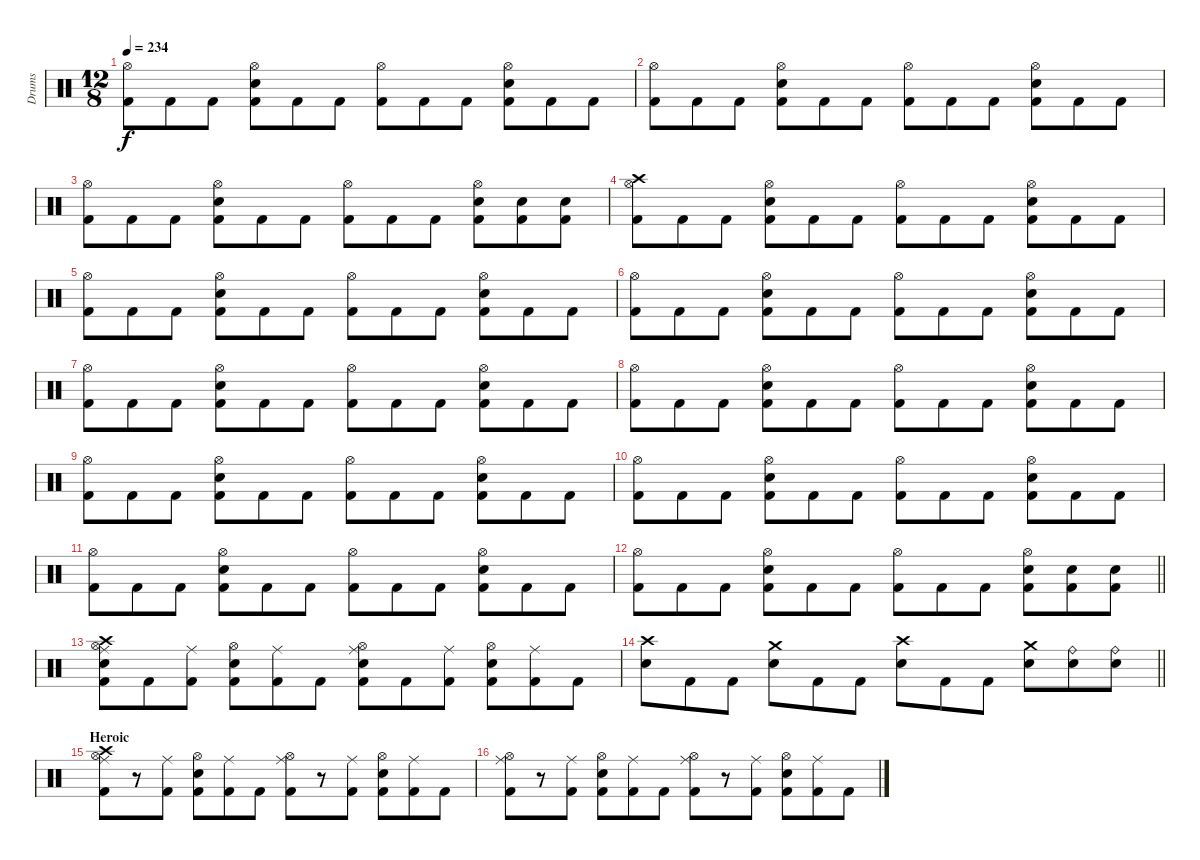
\track ("Drums" "Drums") {instrument percussion}
\staff {score}
\articulation defaults
\ts (12 8)
\tempo 234
\clef neutral
\ks c
("Hi-Hat (open)" "Kick (hit) 2").8{dy f} "Kick (hit) 2".8 "Kick (hit) 2".8 ("Hi-Hat (open)" "Snare (hit) 2" "Kick (hit) 2").8 "Kick (hit) 2".8 "Kick (hit) 2".8 ("Hi-Hat (open)" "Kick (hit) 2").8 "Kick (hit) 2".8 "Kick (hit) 2".8 ("Hi-Hat (open)" "Snare (hit) 2" "Kick (hit) 2").8 "Kick (hit) 2".8 "Kick (hit) 2".8 |
("Hi-Hat (open)" "Kick (hit) 2").8 "Kick (hit) 2".8 "Kick (hit) 2".8 ("Hi-Hat (open)" "Snare (hit) 2" "Kick (hit) 2").8 "Kick (hit) 2".8 "Kick (hit) 2".8 ("Hi-Hat (open)" "Kick (hit) 2").8 "Kick (hit) 2".8 "Kick (hit) 2".8 ("Hi-Hat (open)" "Snare (hit) 2" "Kick (hit) 2").8 "Kick (hit) 2".8 "Kick (hit) 2".8 |
("Hi-Hat (open)" "Kick (hit) 2").8 "Kick (hit) 2".8 "Kick (hit) 2".8 ("Hi-Hat (open)" "Snare (hit) 2" "Kick (hit) 2").8 "Kick (hit) 2".8 "Kick (hit) 2".8 ("Hi-Hat (open)" "Kick (hit) 2").8 "Kick (hit) 2".8 "Kick (hit) 2".8 ("Hi-Hat (open)" "Snare (hit) 2" "Kick (hit) 2").8 ("Snare (hit) 2" "Kick (hit) 2").8 ("Snare (hit) 2" "Kick (hit) 2").8 |
("Crash high (hit)" "Hi-Hat (open)" "Kick (hit) 2").8 "Kick (hit) 2".8 "Kick (hit) 2".8 ("Hi-Hat (open)" "Snare (hit) 2" "Kick (hit) 2").8 "Kick (hit) 2".8 "Kick (hit) 2".8 ("Hi-Hat (open)" "Kick (hit) 2").8 "Kick (hit) 2".8 "Kick (hit) 2".8 ("Hi-Hat (open)" "Snare (hit) 2" "Kick (hit) 2").8 "Kick (hit) 2".8 "Kick (hit) 2".8 |
("Hi-Hat (open)" "Kick (hit) 2").8 "Kick (hit) 2".8 "Kick (hit) 2".8 ("Hi-Hat (open)" "Snare (hit) 2" "Kick (hit) 2").8 "Kick (hit) 2".8 "Kick (hit) 2".8 ("Hi-Hat (open)" "Kick (hit) 2").8 "Kick (hit) 2".8 "Kick (hit) 2".8 ("Hi-Hat (open)" "Snare (hit) 2" "Kick (hit) 2").8 "Kick (hit) 2".8 "Kick (hit) 2".8 |
("Hi-Hat (open)" "Kick (hit) 2").8 "Kick (hit) 2".8 "Kick (hit) 2".8 ("Hi-Hat (open)" "Snare (hit) 2" "Kick (hit) 2").8 "Kick (hit) 2".8 "Kick (hit) 2".8 ("Hi-Hat (open)" "Kick (hit) 2").8 "Kick (hit) 2".8 "Kick (hit) 2".8 ("Hi-Hat (open)" "Snare (hit) 2" "Kick (hit) 2").8 "Kick (hit) 2".8 "Kick (hit) 2".8 |
("Hi-Hat (open)" "Kick (hit) 2").8 "Kick (hit) 2".8 "Kick (hit) 2".8 ("Hi-Hat (open)" "Snare (hit) 2" "Kick (hit) 2").8 "Kick (hit) 2".8 "Kick (hit) 2".8 ("Hi-Hat (open)" "Kick (hit) 2").8 "Kick (hit) 2".8 "Kick (hit) 2".8 ("Hi-Hat (open)" "Snare (hit) 2" "Kick (hit) 2").8 "Kick (hit) 2".8 "Kick (hit) 2".8 |
("Hi-Hat (open)" "Kick (hit) 2").8 "Kick (hit) 2".8 "Kick (hit) 2".8 ("Hi-Hat (open)" "Snare (hit) 2" "Kick (hit) 2").8 "Kick (hit) 2".8 "Kick (hit) 2".8 ("Hi-Hat (open)" "Kick (hit) 2").8 "Kick (hit) 2".8 "Kick (hit) 2".8 ("Hi-Hat (open)" "Snare (hit) 2" "Kick (hit) 2").8 "Kick (hit) 2".8 "Kick (hit) 2".8 |
("Hi-Hat (open)" "Kick (hit) 2").8 "Kick (hit) 2".8 "Kick (hit) 2".8 ("Hi-Hat (open)" "Snare (hit) 2" "Kick (hit) 2").8 "Kick (hit) 2".8 "Kick (hit) 2".8 ("Hi-Hat (open)" "Kick (hit) 2").8 "Kick (hit) 2".8 "Kick (hit) 2".8 ("Hi-Hat (open)" "Snare (hit) 2" "Kick (hit) 2").8 "Kick (hit) 2".8 "Kick (hit) 2".8 |
("Hi-Hat (open)" "Kick (hit) 2").8 "Kick (hit) 2".8 "Kick (hit) 2".8 ("Hi-Hat (open)" "Snare (hit) 2" "Kick (hit) 2").8 "Kick (hit) 2".8 "Kick (hit) 2".8 ("Hi-Hat (open)" "Kick (hit) 2").8 "Kick (hit) 2".8 "Kick (hit) 2".8 ("Hi-Hat (open)" "Snare (hit) 2" "Kick (hit) 2").8 "Kick (hit) 2".8 "Kick (hit) 2".8 |
("Hi-Hat (open)" "Kick (hit) 2").8 "Kick (hit) 2".8 "Kick (hit) 2".8 ("Hi-Hat (open)" "Snare (hit) 2" "Kick (hit) 2").8 "Kick (hit) 2".8 "Kick (hit) 2".8 ("Hi-Hat (open)" "Kick (hit) 2").8 "Kick (hit) 2".8 "Kick (hit) 2".8 ("Hi-Hat (open)" "Snare (hit) 2" "Kick (hit) 2").8 "Kick (hit) 2".8 "Kick (hit) 2".8 |
\barLineRight lightlight
("Hi-Hat (open)" "Kick (hit) 2").8 "Kick (hit) 2".8 "Kick (hit) 2".8 ("Hi-Hat (open)" "Snare (hit) 2" "Kick (hit) 2").8 "Kick (hit) 2".8 "Kick (hit) 2".8 ("Hi-Hat (open)" "Kick (hit) 2").8 "Kick (hit) 2".8 "Kick (hit) 2".8 ("Hi-Hat (open)" "Snare (hit) 2" "Kick (hit) 2").8 ("Snare (hit) 2" "Kick (hit) 2").8 ("Snare (hit) 2" "Kick (hit) 2").8 |
("Crash high (hit)" "Ride (middle)" "Hi-Hat (open)" "Snare (hit) 2" "Kick (hit) 2").8 "Kick (hit) 2".8 ("Ride (middle)" "Kick (hit) 2").8 ("Hi-Hat (open)" "Snare (hit) 2" "Kick (hit) 2").8 ("Ride (middle)" "Kick (hit) 2").8 "Kick (hit) 2".8 ("Ride (middle)" "Hi-Hat (open)" "Snare (hit) 2" "Kick (hit) 2").8 "Kick (hit) 2".8 ("Ride (middle)" "Kick (hit) 2").8 ("Hi-Hat (open)" "Snare (hit) 2" "Kick (hit) 2").8 ("Ride (middle)" "Kick (hit) 2").8 "Kick (hit) 2".8 |
\barLineRight lightlight
("Crash high (hit)" "Snare (hit) 2").8 "Kick (hit) 2".8 "Kick (hit) 2".8 ("Crash medium (hit)" "Snare (hit) 2").8 "Kick (hit) 2".8 "Kick (hit) 2".8 ("Crash high (hit)" "Snare (hit) 2").8 "Kick (hit) 2".8 "Kick (hit) 2".8 ("Crash medium (hit)" "Snare (hit) 2").8 ("Ride (bell)" "Snare (hit) 2").8 ("Ride (bell)" "Snare (hit) 2").8 |
\section ("" "Heroic")
("Crash high (hit)" "Hi-Hat (open)" "Ride (middle)" "Kick (hit) 2").8 r.8 ("Ride (middle)" "Kick (hit) 2").8 ("Hi-Hat (open)" "Snare (hit) 2" "Kick (hit) 2").8 ("Ride (middle)" "Kick (hit) 2").8 "Kick (hit) 2".8 ("Hi-Hat (open)" "Ride (middle)" "Kick (hit) 2").8 r.8 ("Ride (middle)" "Kick (hit) 2").8 ("Hi-Hat (open)" "Snare (hit) 2" "Kick (hit) 2").8 ("Ride (middle)" "Kick (hit) 2").8 "Kick (hit) 2".8 |
("Hi-Hat (open)" "Ride (middle)" "Kick (hit) 2").8 r.8 ("Ride (middle)" "Kick (hit) 2").8 ("Hi-Hat (open)" "Snare (hit) 2" "Kick (hit) 2").8 ("Ride (middle)" "Kick (hit) 2").8 "Kick (hit) 2".8 ("Hi-Hat (open)" "Ride (middle)" "Kick (hit) 2").8 r.8 ("Ride (middle)" "Kick (hit) 2").8 ("Hi-Hat (open)" "Snare (hit) 2" "Kick (hit) 2").8 ("Ride (middle)" "Kick (hit) 2").8 "Kick (hit) 2".8
